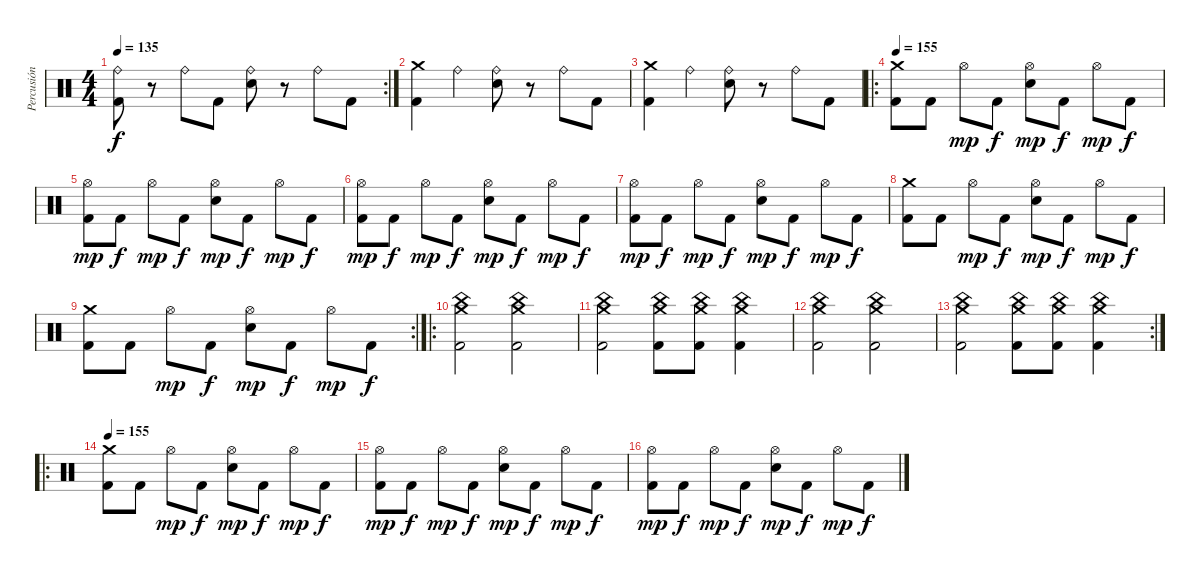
\track ("Percusión" "Percusión") {instrument percussion}
\staff {score}
\articulation defaults
\rc 2
\ts (4 4)
\tempo 135
\clef neutral
\ks c
("Ride (bell)" "Kick (hit) 2").8{dy f} r.8 "Ride (bell)".8 "Kick (hit) 2".8 ("Ride (bell)" "Electric Snare (hit)").8 r.8 "Ride (bell)".8 "Kick (hit) 2".8 |
("Crash medium (hit)" "Kick (hit) 2").4 "Ride (bell)".4 ("Ride (bell)" "Electric Snare (hit)").8 r.8 "Ride (bell)".8 "Kick (hit) 2".8 |
("Crash medium (hit)" "Kick (hit) 2").4 "Ride (bell)".4 ("Ride (bell)" "Electric Snare (hit)").8 r.8 "Ride (bell)".8 "Kick (hit) 2".8 |
\ro
\tempo 155
("Crash medium (hit)" "Kick (hit) 2").8 "Kick (hit) 2".8 "Hi-Hat (open)".8{dy mp} "Kick (hit) 2".8{dy f} ("Hi-Hat (open)" "Electric Snare (hit)").8{dy mp} "Kick (hit) 2".8{dy f} "Hi-Hat (open)".8{dy mp} "Kick (hit) 2".8{dy f} |
("Hi-Hat (open)" "Kick (hit) 2").8{dy mp} "Kick (hit) 2".8{dy f} "Hi-Hat (open)".8{dy mp} "Kick (hit) 2".8{dy f} ("Hi-Hat (open)" "Electric Snare (hit)").8{dy mp} "Kick (hit) 2".8{dy f} "Hi-Hat (open)".8{dy mp} "Kick (hit) 2".8{dy f} |
("Hi-Hat (open)" "Kick (hit) 2").8{dy mp} "Kick (hit) 2".8{dy f} "Hi-Hat (open)".8{dy mp} "Kick (hit) 2".8{dy f} ("Hi-Hat (open)" "Electric Snare (hit)").8{dy mp} "Kick (hit) 2".8{dy f} "Hi-Hat (open)".8{dy mp} "Kick (hit) 2".8{dy f} |
("Hi-Hat (open)" "Kick (hit) 2").8{dy mp} "Kick (hit) 2".8{dy f} "Hi-Hat (open)".8{dy mp} "Kick (hit) 2".8{dy f} ("Hi-Hat (open)" "Electric Snare (hit)").8{dy mp} "Kick (hit) 2".8{dy f} "Hi-Hat (open)".8{dy mp} "Kick (hit) 2".8{dy f} |
("Crash medium (hit)" "Kick (hit) 2").8 "Kick (hit) 2".8 "Hi-Hat (open)".8{dy mp} "Kick (hit) 2".8{dy f} ("Hi-Hat (open)" "Electric Snare (hit)").8{dy mp} "Kick (hit) 2".8{dy f} "Hi-Hat (open)".8{dy mp} "Kick (hit) 2".8{dy f} |
\rc 2
("Crash medium (hit)" "Kick (hit) 2").8 "Kick (hit) 2".8 "Hi-Hat (open)".8{dy mp} "Kick (hit) 2".8{dy f} ("Hi-Hat (open)" "Electric Snare (hit)").8{dy mp} "Kick (hit) 2".8{dy f} "Hi-Hat (open)".8{dy mp} "Kick (hit) 2".8{dy f} |
\ro
("China (hit)" "Crash medium (hit)" "Kick (hit) 2").2 ("China (hit)" "Crash medium (hit)" "Kick (hit) 2").2 |
("China (hit)" "Crash medium (hit)" "Kick (hit) 2").2 ("China (hit)" "Crash medium (hit)" "Kick (hit) 2").8 ("China (hit)" "Crash medium (hit)" "Kick (hit) 2").8 ("China (hit)" "Crash medium (hit)" "Kick (hit) 2").4 |
("China (hit)" "Crash medium (hit)" "Kick (hit) 2").2 ("China (hit)" "Crash medium (hit)" "Kick (hit) 2").2 |
\rc 2
("China (hit)" "Crash medium (hit)" "Kick (hit) 2").2 ("China (hit)" "Crash medium (hit)" "Kick (hit) 2").8 ("China (hit)" "Crash medium (hit)" "Kick (hit) 2").8 ("China (hit)" "Crash medium (hit)" "Kick (hit) 2").4 |
\ro
\tempo 155
("Crash medium (hit)" "Kick (hit) 2").8 "Kick (hit) 2".8 "Hi-Hat (open)".8{dy mp} "Kick (hit) 2".8{dy f} ("Hi-Hat (open)" "Electric Snare (hit)").8{dy mp} "Kick (hit) 2".8{dy f} "Hi-Hat (open)".8{dy mp} "Kick (hit) 2".8{dy f} |
("Hi-Hat (open)" "Kick (hit) 2").8{dy mp} "Kick (hit) 2".8{dy f} "Hi-Hat (open)".8{dy mp} "Kick (hit) 2".8{dy f} ("Hi-Hat (open)" "Electric Snare (hit)").8{dy mp} "Kick (hit) 2".8{dy f} "Hi-Hat (open)".8{dy mp} "Kick (hit) 2".8{dy f} |
("Hi-Hat (open)" "Kick (hit) 2").8{dy mp} "Kick (hit) 2".8{dy f} "Hi-Hat (open)".8{dy mp} "Kick (hit) 2".8{dy f} ("Hi-Hat (open)" "Electric Snare (hit)").8{dy mp} "Kick (hit) 2".8{dy f} "Hi-Hat (open)".8{dy mp} "Kick (hit) 2".8{dy f}
